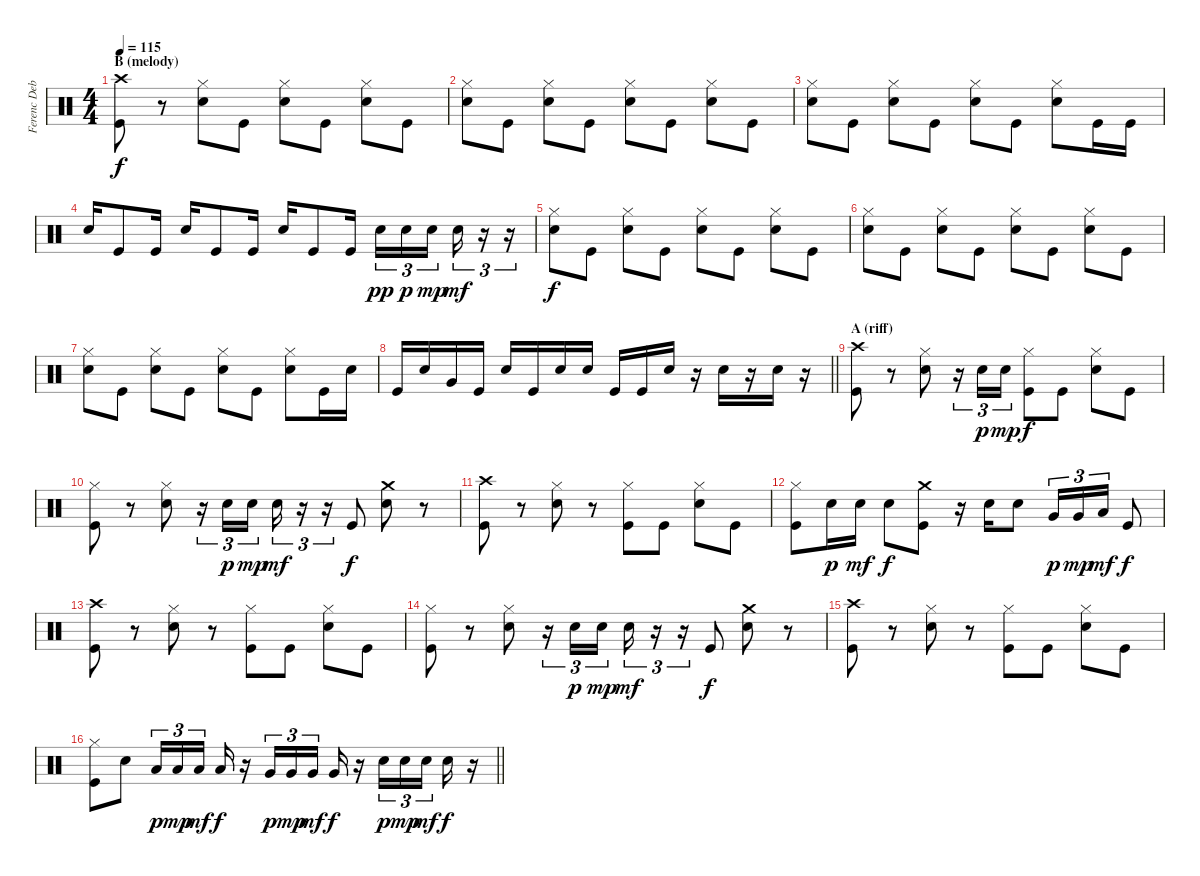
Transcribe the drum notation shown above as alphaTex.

\track ("Ferenc Debreceni \"Ciki\" (Drums)" "Ferenc Deb") {instrument percussion}
\staff {score}
\articulation defaults
\ts (4 4)
\section ("" "B (melody)")
\tempo 115
\clef neutral
\ks c
("Crash high (hit)" "Kick (hit)").8{dy f} r.8 ("Hi-Hat (closed)" "Electric Snare (hit)").8 "Kick (hit)".8 ("Hi-Hat (closed)" "Electric Snare (hit)").8 "Kick (hit)".8 ("Hi-Hat (closed)" "Electric Snare (hit)").8 "Kick (hit)".8 |
("Hi-Hat (closed)" "Electric Snare (hit)").8 "Kick (hit)".8 ("Hi-Hat (closed)" "Electric Snare (hit)").8 "Kick (hit)".8 ("Hi-Hat (closed)" "Electric Snare (hit)").8 "Kick (hit)".8 ("Hi-Hat (closed)" "Electric Snare (hit)").8 "Kick (hit)".8 |
("Hi-Hat (closed)" "Electric Snare (hit)").8 "Kick (hit)".8 ("Hi-Hat (closed)" "Electric Snare (hit)").8 "Kick (hit)".8 ("Hi-Hat (closed)" "Electric Snare (hit)").8 "Kick (hit)".8 ("Hi-Hat (closed)" "Electric Snare (hit)").8 "Kick (hit)".16 "Kick (hit)".16 |
"Electric Snare (hit)".16 "Kick (hit)".8 "Kick (hit)".16 "Electric Snare (hit)".16 "Kick (hit)".8 "Kick (hit)".16 "Electric Snare (hit)".16 "Kick (hit)".8 "Kick (hit)".16 "Electric Snare (hit)".16{tu (3 2) dy pp} "Electric Snare (hit)".16{tu (3 2) dy p} "Electric Snare (hit)".16{tu (3 2) dy mp beam splitsecondary} "Electric Snare (hit)".16{tu (3 2) dy mf} r.16{tu (3 2)} r.16{tu (3 2)} |
("Hi-Hat (closed)" "Electric Snare (hit)").8{dy f} "Kick (hit)".8 ("Hi-Hat (closed)" "Electric Snare (hit)").8 "Kick (hit)".8 ("Hi-Hat (closed)" "Electric Snare (hit)").8 "Kick (hit)".8 ("Hi-Hat (closed)" "Electric Snare (hit)").8 "Kick (hit)".8 |
("Hi-Hat (closed)" "Electric Snare (hit)").8 "Kick (hit)".8 ("Hi-Hat (closed)" "Electric Snare (hit)").8 "Kick (hit)".8 ("Hi-Hat (closed)" "Electric Snare (hit)").8 "Kick (hit)".8 ("Hi-Hat (closed)" "Electric Snare (hit)").8 "Kick (hit)".8 |
("Hi-Hat (closed)" "Electric Snare (hit)").8 "Kick (hit)".8 ("Hi-Hat (closed)" "Electric Snare (hit)").8 "Kick (hit)".8 ("Hi-Hat (closed)" "Electric Snare (hit)").8 "Kick (hit)".8 ("Hi-Hat (closed)" "Electric Snare (hit)").8 "Kick (hit)".16 "Electric Snare (hit)".16 |
\barLineRight lightlight "Kick (hit)".16 "Electric Snare (hit)".16 "Very Low Tom (hit)".16 "Kick (hit)".16 "Electric Snare (hit)".16 "Kick (hit)".16 "Electric Snare (hit)".16 "Electric Snare (hit)".16 "Kick (hit)".16 "Kick (hit)".16 "Electric Snare (hit)".16
r.16 "Electric Snare (hit)".16 r.16 "Electric Snare (hit)".16 r.16 |
\section ("" "A (riff)")
("Crash high (hit)" "Kick (hit)").8 r.8 ("Hi-Hat (closed)" "Electric Snare (hit)").8 r.16{tu (3 2)} "Electric Snare (hit)".16{tu (3 2) dy p} "Electric Snare (hit)".16{tu (3 2) dy mp} ("Hi-Hat (closed)" "Kick (hit)").8{dy f} "Kick (hit)".8 ("Hi-Hat (closed)" "Electric Snare (hit)").8 "Kick (hit)".8 |
("Hi-Hat (closed)" "Kick (hit)").8 r.8 ("Hi-Hat (closed)" "Electric Snare (hit)").8 r.16{tu (3 2)} "Electric Snare (hit)".16{tu (3 2) dy p} "Electric Snare (hit)".16{tu (3 2) dy mp} "Electric Snare (hit)".16{tu (3 2) dy mf} r.16{tu (3 2)} r.16{tu (3 2)} "Kick (hit)".8{dy f} ("Crash medium (hit)" "Electric Snare (hit)").8 r.8 |
("Crash high (hit)" "Kick (hit)").8 r.8 ("Hi-Hat (closed)" "Electric Snare (hit)").8 r.8 ("Hi-Hat (closed)" "Kick (hit)").8 "Kick (hit)".8 ("Hi-Hat (closed)" "Electric Snare (hit)").8 "Kick (hit)".8 |
("Hi-Hat (closed)" "Kick (hit)").8 "Electric Snare (hit)".16{dy p} "Electric Snare (hit)".16{dy mf} "Electric Snare (hit)".8{dy f} ("Crash medium (hit)" "Kick (hit)").8 r.16 "Electric Snare (hit)".16 "Electric Snare (hit)".8 "Very Low Tom (hit)".16{tu (3 2) dy p} "Very Low Tom (hit)".16{tu (3 2) dy mp} "Low Floor Tom (hit)".16{tu (3 2) dy mf} "Kick (hit)".8{dy f} |
("Crash high (hit)" "Kick (hit)").8 r.8 ("Hi-Hat (closed)" "Electric Snare (hit)").8 r.8 ("Hi-Hat (closed)" "Kick (hit)").8 "Kick (hit)".8 ("Hi-Hat (closed)" "Electric Snare (hit)").8 "Kick (hit)".8 |
("Hi-Hat (closed)" "Kick (hit)").8 r.8 ("Hi-Hat (closed)" "Electric Snare (hit)").8 r.16{tu (3 2)} "Electric Snare (hit)".16{tu (3 2) dy p} "Electric Snare (hit)".16{tu (3 2) dy mp} "Electric Snare (hit)".16{tu (3 2) dy mf} r.16{tu (3 2)} r.16{tu (3 2)} "Kick (hit)".8{dy f} ("Crash medium (hit)" "Electric Snare (hit)").8 r.8 |
("Crash high (hit)" "Kick (hit)").8 r.8 ("Hi-Hat (closed)" "Electric Snare (hit)").8 r.8 ("Hi-Hat (closed)" "Kick (hit)").8 "Kick (hit)".8 ("Hi-Hat (closed)" "Electric Snare (hit)").8 "Kick (hit)".8 |
\barLineRight lightlight
("Hi-Hat (closed)" "Kick (hit)").8 "Electric Snare (hit)".8 "Low Tom (hit)".16{tu (3 2) dy p} "Low Tom (hit)".16{tu (3 2) dy mp} "Low Tom (hit)".16{tu (3 2) dy mf beam splitsecondary} "Low Tom (hit)".16{dy f} r.16 "Very Low Tom (hit)".16{tu (3 2) dy p} "Very Low Tom (hit)".16{tu (3 2) dy mp} "Very Low Tom (hit)".16{tu (3 2) dy mf beam splitsecondary} "Very Low Tom (hit)".16{dy f} r.16 "Electric Snare (hit)".16{tu (3 2) dy p} "Electric Snare (hit)".16{tu (3 2) dy mp} "Electric Snare (hit)".16{tu (3 2) dy mf beam splitsecondary} "Electric Snare (hit)".16{dy f} r.16
